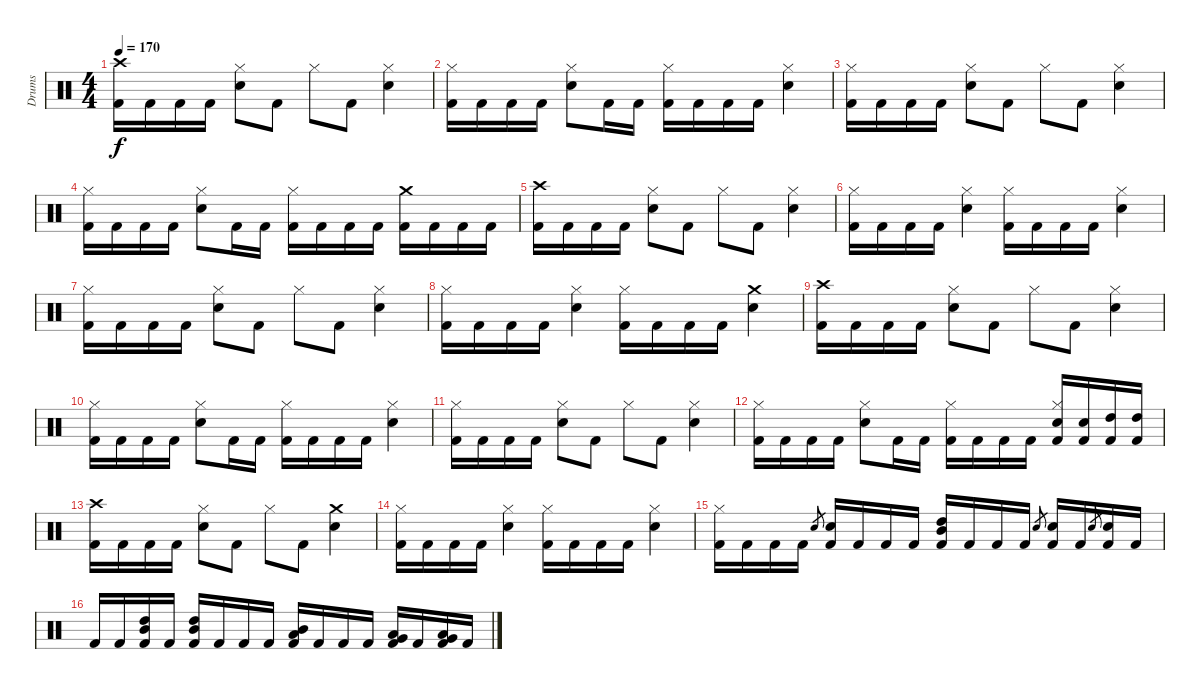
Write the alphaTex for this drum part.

\track ("Drums" "Drums") {instrument percussion}
\staff {score}
\articulation defaults
\ts (4 4)
\tempo 170
\clef neutral
\ks c
("Crash high (hit)" "Kick (hit) 2").16{dy f} "Kick (hit) 2".16 "Kick (hit) 2".16 "Kick (hit) 2".16 ("Hi-Hat (closed)" "Snare (hit) 2").8 "Kick (hit) 2".8 "Hi-Hat (closed)".8 "Kick (hit) 2".8 ("Hi-Hat (closed)" "Snare (hit) 2").4 |
("Hi-Hat (closed)" "Kick (hit) 2").16 "Kick (hit) 2".16 "Kick (hit) 2".16 "Kick (hit) 2".16 ("Hi-Hat (closed)" "Snare (hit) 2").8 "Kick (hit) 2".16 "Kick (hit) 2".16 ("Hi-Hat (closed)" "Kick (hit) 2").16 "Kick (hit) 2".16 "Kick (hit) 2".16 "Kick (hit) 2".16 ("Hi-Hat (closed)" "Snare (hit) 2").4 |
("Hi-Hat (closed)" "Kick (hit) 2").16 "Kick (hit) 2".16 "Kick (hit) 2".16 "Kick (hit) 2".16 ("Hi-Hat (closed)" "Snare (hit) 2").8 "Kick (hit) 2".8 "Hi-Hat (closed)".8 "Kick (hit) 2".8 ("Hi-Hat (closed)" "Snare (hit) 2").4 |
("Hi-Hat (closed)" "Kick (hit) 2").16 "Kick (hit) 2".16 "Kick (hit) 2".16 "Kick (hit) 2".16 ("Hi-Hat (closed)" "Snare (hit) 2").8 "Kick (hit) 2".16 "Kick (hit) 2".16 ("Hi-Hat (closed)" "Kick (hit) 2").16 "Kick (hit) 2".16 "Kick (hit) 2".16 "Kick (hit) 2".16 ("Crash medium (hit)" "Kick (hit) 2").16 "Kick (hit) 2".16 "Kick (hit) 2".16 "Kick (hit) 2".16 |
("Crash high (hit)" "Kick (hit) 2").16 "Kick (hit) 2".16 "Kick (hit) 2".16 "Kick (hit) 2".16 ("Hi-Hat (closed)" "Snare (hit) 2").8 "Kick (hit) 2".8 "Hi-Hat (closed)".8 "Kick (hit) 2".8 ("Hi-Hat (closed)" "Snare (hit) 2").4 |
("Hi-Hat (closed)" "Kick (hit) 2").16 "Kick (hit) 2".16 "Kick (hit) 2".16 "Kick (hit) 2".16 ("Hi-Hat (closed)" "Snare (hit) 2").4 ("Hi-Hat (closed)" "Kick (hit) 2").16 "Kick (hit) 2".16 "Kick (hit) 2".16 "Kick (hit) 2".16 ("Hi-Hat (closed)" "Snare (hit) 2").4 |
("Hi-Hat (closed)" "Kick (hit) 2").16 "Kick (hit) 2".16 "Kick (hit) 2".16 "Kick (hit) 2".16 ("Hi-Hat (closed)" "Snare (hit) 2").8 "Kick (hit) 2".8 "Hi-Hat (closed)".8 "Kick (hit) 2".8 ("Hi-Hat (closed)" "Snare (hit) 2").4 |
("Hi-Hat (closed)" "Kick (hit) 2").16 "Kick (hit) 2".16 "Kick (hit) 2".16 "Kick (hit) 2".16 ("Hi-Hat (closed)" "Snare (hit) 2").4 ("Hi-Hat (closed)" "Kick (hit) 2").16 "Kick (hit) 2".16 "Kick (hit) 2".16 "Kick (hit) 2".16 ("Crash medium (hit)" "Snare (hit) 2").4 |
("Crash high (hit)" "Kick (hit) 2").16 "Kick (hit) 2".16 "Kick (hit) 2".16 "Kick (hit) 2".16 ("Hi-Hat (closed)" "Snare (hit) 2").8 "Kick (hit) 2".8 "Hi-Hat (closed)".8 "Kick (hit) 2".8 ("Hi-Hat (closed)" "Snare (hit) 2").4 |
("Hi-Hat (closed)" "Kick (hit) 2").16 "Kick (hit) 2".16 "Kick (hit) 2".16 "Kick (hit) 2".16 ("Hi-Hat (closed)" "Snare (hit) 2").8 "Kick (hit) 2".16 "Kick (hit) 2".16 ("Hi-Hat (closed)" "Kick (hit) 2").16 "Kick (hit) 2".16 "Kick (hit) 2".16 "Kick (hit) 2".16 ("Hi-Hat (closed)" "Snare (hit) 2").4 |
("Hi-Hat (closed)" "Kick (hit) 2").16 "Kick (hit) 2".16 "Kick (hit) 2".16 "Kick (hit) 2".16 ("Hi-Hat (closed)" "Snare (hit) 2").8 "Kick (hit) 2".8 "Hi-Hat (closed)".8 "Kick (hit) 2".8 ("Hi-Hat (closed)" "Snare (hit) 2").4 |
("Hi-Hat (closed)" "Kick (hit) 2").16 "Kick (hit) 2".16 "Kick (hit) 2".16 "Kick (hit) 2".16 ("Hi-Hat (closed)" "Snare (hit) 2").8 "Kick (hit) 2".16 "Kick (hit) 2".16 ("Hi-Hat (closed)" "Kick (hit) 2").16 "Kick (hit) 2".16 "Kick (hit) 2".16 "Kick (hit) 2".16 ("Hi-Hat (closed)" "Snare (hit) 2" "Kick (hit) 2").16 ("Snare (hit) 2" "Kick (hit) 2").16 ("High Tom (hit)" "Kick (hit) 2").16 ("High Tom (hit)" "Kick (hit) 2").16 |
("Crash high (hit)" "Kick (hit) 2").16 "Kick (hit) 2".16 "Kick (hit) 2".16 "Kick (hit) 2".16 ("Hi-Hat (closed)" "Snare (hit) 2").8 "Kick (hit) 2".8 "Hi-Hat (closed)".8 "Kick (hit) 2".8 ("Crash medium (hit)" "Snare (hit) 2").4 |
("Hi-Hat (closed)" "Kick (hit) 2").16 "Kick (hit) 2".16 "Kick (hit) 2".16 "Kick (hit) 2".16 ("Hi-Hat (closed)" "Snare (hit) 2").4 ("Hi-Hat (closed)" "Kick (hit) 2").16 "Kick (hit) 2".16 "Kick (hit) 2".16 "Kick (hit) 2".16 ("Hi-Hat (closed)" "Snare (hit) 2").4 |
("Hi-Hat (closed)" "Kick (hit) 2").16 "Kick (hit) 2".16 "Kick (hit) 2".16 "Kick (hit) 2".16 "Snare (hit) 2".8{gr} ("Snare (hit) 2" "Kick (hit) 2").16 "Kick (hit) 2".16 "Kick (hit) 2".16 "Kick (hit) 2".16 ("High Tom (hit)" "Mid Tom (hit)" "Kick (hit) 2").16 "Kick (hit) 2".16 "Kick (hit) 2".16 "Kick (hit) 2".16 "Snare (hit) 2".8{gr} ("Snare (hit) 2" "Kick (hit) 2").16 "Kick (hit) 2".16 "Snare (hit) 2".8{gr} ("Snare (hit) 2" "Kick (hit) 2").16 "Kick (hit) 2".16 |
"Kick (hit) 2".16 "Kick (hit) 2".16 ("High Tom (hit)" "Mid Tom (hit)" "Kick (hit) 2").16 "Kick (hit) 2".16 ("High Tom (hit)" "Mid Tom (hit)" "Kick (hit) 2").16 "Kick (hit) 2".16 "Kick (hit) 2".16 "Kick (hit) 2".16 ("Mid Tom (hit)" "Low Tom (hit)" "Kick (hit) 2").16 "Kick (hit) 2".16 "Kick (hit) 2".16 "Kick (hit) 2".16 ("Low Tom (hit)" "Very Low Tom (hit)" "Kick (hit) 2").16 "Kick (hit) 2".16 ("Low Tom (hit)" "Very Low Tom (hit)" "Kick (hit) 2").16 "Kick (hit) 2".16
